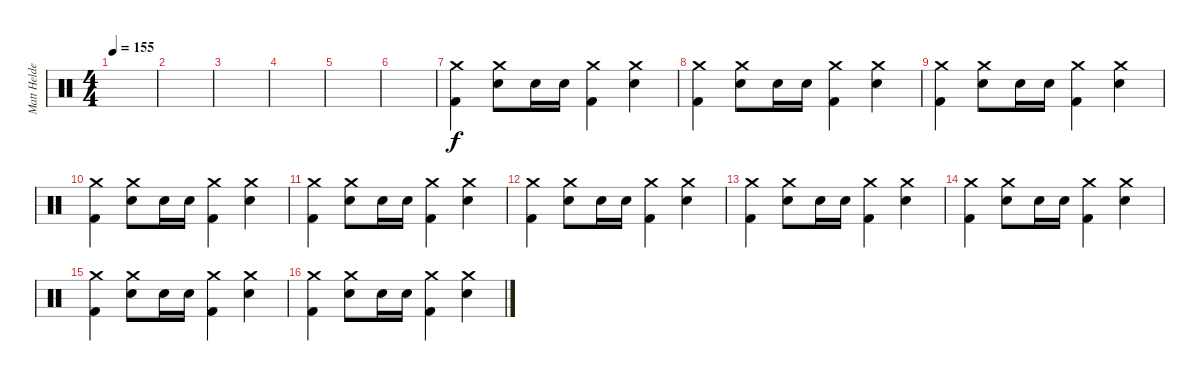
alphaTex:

\track ("Matt Helders" "Matt Helde") {instrument percussion}
\staff {score}
\articulation defaults
\ts (4 4)
\tempo 155
\clef neutral
\ks c
|
|
|
|
|
|
("Crash medium (hit)" "Kick (hit) 2").4 ("Crash medium (hit)" "Snare (hit) 2").8 "Snare (hit) 2".16 "Snare (hit) 2".16 ("Crash medium (hit)" "Kick (hit) 2").4 ("Crash medium (hit)" "Snare (hit) 2").4 |
("Crash medium (hit)" "Kick (hit) 2").4 ("Crash medium (hit)" "Snare (hit) 2").8 "Snare (hit) 2".16 "Snare (hit) 2".16 ("Crash medium (hit)" "Kick (hit) 2").4 ("Crash medium (hit)" "Snare (hit) 2").4 |
("Crash medium (hit)" "Kick (hit) 2").4 ("Crash medium (hit)" "Snare (hit) 2").8 "Snare (hit) 2".16 "Snare (hit) 2".16 ("Crash medium (hit)" "Kick (hit) 2").4 ("Crash medium (hit)" "Snare (hit) 2").4 |
("Crash medium (hit)" "Kick (hit) 2").4 ("Crash medium (hit)" "Snare (hit) 2").8 "Snare (hit) 2".16 "Snare (hit) 2".16 ("Crash medium (hit)" "Kick (hit) 2").4 ("Crash medium (hit)" "Snare (hit) 2").4 |
("Crash medium (hit)" "Kick (hit) 2").4 ("Crash medium (hit)" "Snare (hit) 2").8 "Snare (hit) 2".16 "Snare (hit) 2".16 ("Crash medium (hit)" "Kick (hit) 2").4 ("Crash medium (hit)" "Snare (hit) 2").4 |
("Crash medium (hit)" "Kick (hit) 2").4 ("Crash medium (hit)" "Snare (hit) 2").8 "Snare (hit) 2".16 "Snare (hit) 2".16 ("Crash medium (hit)" "Kick (hit) 2").4 ("Crash medium (hit)" "Snare (hit) 2").4 |
("Crash medium (hit)" "Kick (hit) 2").4 ("Crash medium (hit)" "Snare (hit) 2").8 "Snare (hit) 2".16 "Snare (hit) 2".16 ("Crash medium (hit)" "Kick (hit) 2").4 ("Crash medium (hit)" "Snare (hit) 2").4 |
("Crash medium (hit)" "Kick (hit) 2").4 ("Crash medium (hit)" "Snare (hit) 2").8 "Snare (hit) 2".16 "Snare (hit) 2".16 ("Crash medium (hit)" "Kick (hit) 2").4 ("Crash medium (hit)" "Snare (hit) 2").4 |
("Crash medium (hit)" "Kick (hit) 2").4 ("Crash medium (hit)" "Snare (hit) 2").8 "Snare (hit) 2".16 "Snare (hit) 2".16 ("Crash medium (hit)" "Kick (hit) 2").4 ("Crash medium (hit)" "Snare (hit) 2").4 |
("Crash medium (hit)" "Kick (hit) 2").4 ("Crash medium (hit)" "Snare (hit) 2").8 "Snare (hit) 2".16 "Snare (hit) 2".16 ("Crash medium (hit)" "Kick (hit) 2").4 ("Crash medium (hit)" "Snare (hit) 2").4
